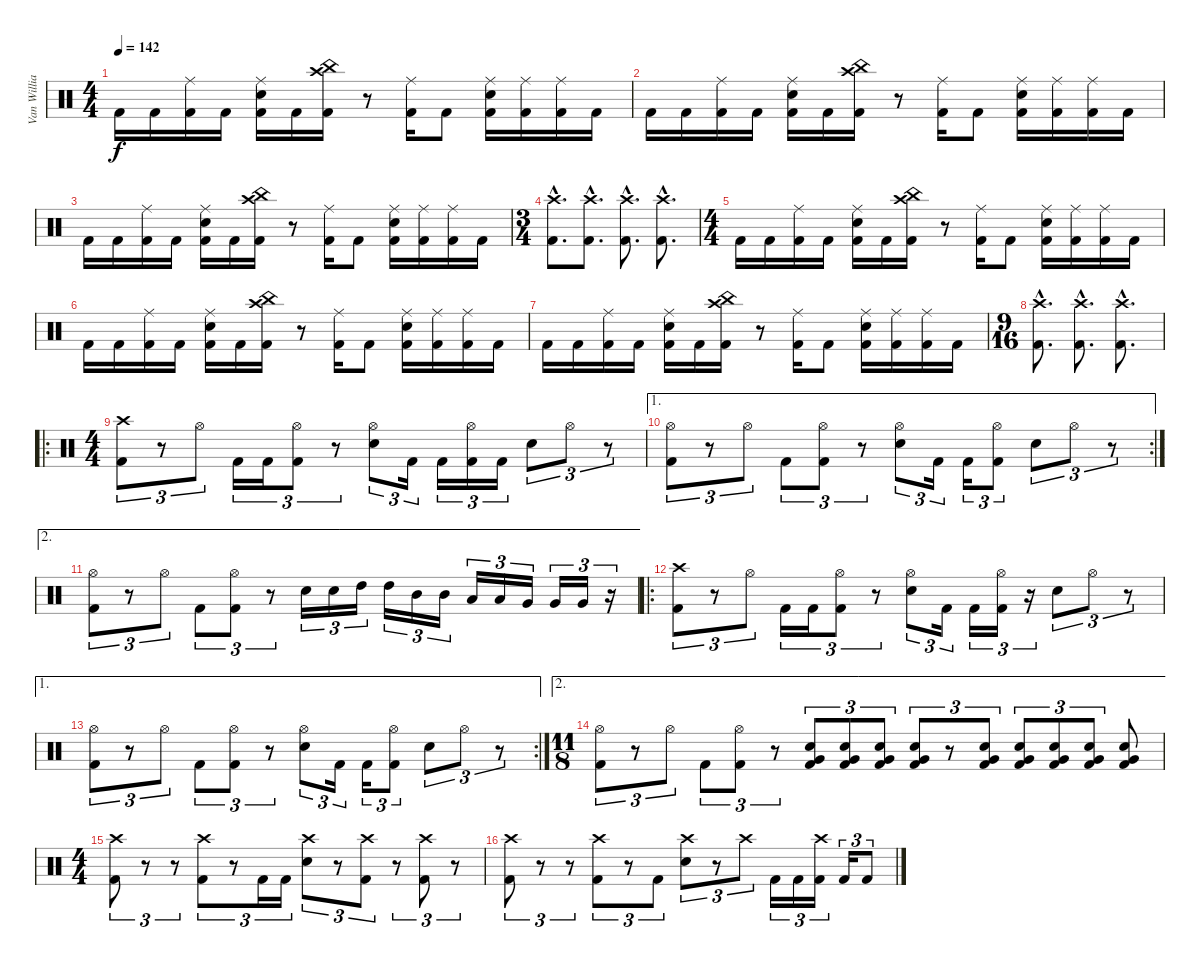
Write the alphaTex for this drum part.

\track ("Van Williams" "Van Willia") {instrument percussion}
\staff {score}
\articulation defaults
\ts (4 4)
\tempo 142
\clef neutral
\ks c "Kick (hit) 2".16{dy f} "Kick (hit) 2".16
("Ride (middle)" "Kick (hit) 2").16 "Kick (hit) 2".16 ("Ride (middle)" "Kick (hit) 2" "Electric Snare (hit)").16 "Kick (hit) 2".16 ("Crash high (hit)" "China (hit)" "Kick (hit) 2").16 r.8 ("Ride (middle)" "Kick (hit) 2").16 "Kick (hit) 2".8 ("Ride (middle)" "Kick (hit) 2" "Electric Snare (hit)").16 ("Ride (middle)" "Kick (hit) 2").16 ("Ride (middle)" "Kick (hit) 2").16 "Kick (hit) 2".16 |
"Kick (hit) 2".16 "Kick (hit) 2".16 ("Ride (middle)" "Kick (hit) 2").16 "Kick (hit) 2".16 ("Ride (middle)" "Kick (hit) 2" "Electric Snare (hit)").16 "Kick (hit) 2".16 ("Crash high (hit)" "China (hit)" "Kick (hit) 2").16 r.8 ("Ride (middle)" "Kick (hit) 2").16 "Kick (hit) 2".8 ("Ride (middle)" "Kick (hit) 2" "Electric Snare (hit)").16 ("Ride (middle)" "Kick (hit) 2").16 ("Ride (middle)" "Kick (hit) 2").16 "Kick (hit) 2".16 |
"Kick (hit) 2".16 "Kick (hit) 2".16 ("Ride (middle)" "Kick (hit) 2").16 "Kick (hit) 2".16 ("Ride (middle)" "Kick (hit) 2" "Electric Snare (hit)").16 "Kick (hit) 2".16 ("Crash high (hit)" "China (hit)" "Kick (hit) 2").16 r.8 ("Ride (middle)" "Kick (hit) 2").16 "Kick (hit) 2".8 ("Ride (middle)" "Kick (hit) 2" "Electric Snare (hit)").16 ("Ride (middle)" "Kick (hit) 2").16 ("Ride (middle)" "Kick (hit) 2").16 "Kick (hit) 2".16 |
\ts (3 4)
("Crash high (hit)"{hac} "Kick (hit) 2"{hac}).8{d} ("Crash high (hit)"{hac} "Kick (hit) 2"{hac}).8{d} ("Crash high (hit)"{hac} "Kick (hit) 2"{hac}).8{d} ("Crash high (hit)"{hac} "Kick (hit) 2"{hac}).8{d} |
\ts (4 4)
"Kick (hit) 2".16 "Kick (hit) 2".16 ("Ride (middle)" "Kick (hit) 2").16 "Kick (hit) 2".16 ("Ride (middle)" "Kick (hit) 2" "Electric Snare (hit)").16 "Kick (hit) 2".16 ("Crash high (hit)" "China (hit)" "Kick (hit) 2").16 r.8 ("Ride (middle)" "Kick (hit) 2").16 "Kick (hit) 2".8 ("Ride (middle)" "Kick (hit) 2" "Electric Snare (hit)").16 ("Ride (middle)" "Kick (hit) 2").16 ("Ride (middle)" "Kick (hit) 2").16 "Kick (hit) 2".16 |
"Kick (hit) 2".16 "Kick (hit) 2".16 ("Ride (middle)" "Kick (hit) 2").16 "Kick (hit) 2".16 ("Ride (middle)" "Kick (hit) 2" "Electric Snare (hit)").16 "Kick (hit) 2".16 ("Crash high (hit)" "China (hit)" "Kick (hit) 2").16 r.8 ("Ride (middle)" "Kick (hit) 2").16 "Kick (hit) 2".8 ("Ride (middle)" "Kick (hit) 2" "Electric Snare (hit)").16 ("Ride (middle)" "Kick (hit) 2").16 ("Ride (middle)" "Kick (hit) 2").16 "Kick (hit) 2".16 |
"Kick (hit) 2".16 "Kick (hit) 2".16 ("Ride (middle)" "Kick (hit) 2").16 "Kick (hit) 2".16 ("Ride (middle)" "Kick (hit) 2" "Electric Snare (hit)").16 "Kick (hit) 2".16 ("Crash high (hit)" "China (hit)" "Kick (hit) 2").16 r.8 ("Ride (middle)" "Kick (hit) 2").16 "Kick (hit) 2".8 ("Ride (middle)" "Kick (hit) 2" "Electric Snare (hit)").16 ("Ride (middle)" "Kick (hit) 2").16 ("Ride (middle)" "Kick (hit) 2").16 "Kick (hit) 2".16 |
\ts (9 16)
("Crash high (hit)"{hac} "Kick (hit) 2"{hac}).8{d} ("Crash high (hit)"{hac} "Kick (hit) 2"{hac}).8{d} ("Crash high (hit)"{hac} "Kick (hit) 2"{hac}).8{d} |
\ro
\ts (4 4)
("Crash high (hit)" "Kick (hit) 2").8{tu (3 2)} r.8{tu (3 2)} "Hi-Hat (open)".8{tu (3 2)} "Kick (hit) 2".16{tu (3 2)} "Kick (hit) 2".16{tu (3 2)} ("Hi-Hat (open)" "Kick (hit) 2").8{tu (3 2)} r.8{tu (3 2)} ("Hi-Hat (open)" "Electric Snare (hit)").8{tu (3 2)} "Kick (hit) 2".16{tu (3 2)} "Kick (hit) 2".16{tu (3 2)} ("Hi-Hat (open)" "Kick (hit) 2").16{tu (3 2)} "Kick (hit) 2".16{tu (3 2)} "Electric Snare (hit)".8{tu (3 2)} "Hi-Hat (open)".8{tu (3 2)} r.8{tu (3 2)} |
\ae 1
\rc 2
("Hi-Hat (open)" "Kick (hit) 2").8{tu (3 2)} r.8{tu (3 2)} "Hi-Hat (open)".8{tu (3 2)} "Kick (hit) 2".8{tu (3 2)} ("Hi-Hat (open)" "Kick (hit) 2").8{tu (3 2)} r.8{tu (3 2)} ("Hi-Hat (open)" "Electric Snare (hit)").8{tu (3 2)} "Kick (hit) 2".16{tu (3 2)} "Kick (hit) 2".16{tu (3 2)} ("Hi-Hat (open)" "Kick (hit) 2").8{tu (3 2)} "Electric Snare (hit)".8{tu (3 2)} "Hi-Hat (open)".8{tu (3 2)} r.8{tu (3 2)} |
\ae 2
("Hi-Hat (open)" "Kick (hit) 2").8{tu (3 2)} r.8{tu (3 2)} "Hi-Hat (open)".8{tu (3 2)} "Kick (hit) 2".8{tu (3 2)} ("Hi-Hat (open)" "Kick (hit) 2").8{tu (3 2)} r.8{tu (3 2)} "Electric Snare (hit)".16{tu (3 2)} "Electric Snare (hit)".16{tu (3 2)} "High Tom (hit)".16{tu (3 2)} "High Tom (hit)".16{tu (3 2)} "Mid Tom (hit)".16{tu (3 2)} "Mid Tom (hit)".16{tu (3 2)} "Low Tom (hit)".16{tu (3 2)} "Low Tom (hit)".16{tu (3 2)} "Very Low Tom (hit)".16{tu (3 2)} "Very Low Tom (hit)".16{tu (3 2)} "Very Low Tom (hit)".16{tu (3 2)} r.16{tu (3 2)} |
\ro
("Crash high (hit)" "Kick (hit) 2").8{tu (3 2)} r.8{tu (3 2)} "Hi-Hat (open)".8{tu (3 2)} "Kick (hit) 2".16{tu (3 2)} "Kick (hit) 2".16{tu (3 2)} ("Hi-Hat (open)" "Kick (hit) 2").8{tu (3 2)} r.8{tu (3 2)} ("Hi-Hat (open)" "Electric Snare (hit)").8{tu (3 2)} "Kick (hit) 2".16{tu (3 2)} "Kick (hit) 2".16{tu (3 2)} ("Hi-Hat (open)" "Kick (hit) 2").16{tu (3 2)} r.16{tu (3 2)} "Electric Snare (hit)".8{tu (3 2)} "Hi-Hat (open)".8{tu (3 2)} r.8{tu (3 2)} |
\ae 1
\rc 2
("Hi-Hat (open)" "Kick (hit) 2").8{tu (3 2)} r.8{tu (3 2)} "Hi-Hat (open)".8{tu (3 2)} "Kick (hit) 2".8{tu (3 2)} ("Hi-Hat (open)" "Kick (hit) 2").8{tu (3 2)} r.8{tu (3 2)} ("Hi-Hat (open)" "Electric Snare (hit)").8{tu (3 2)} "Kick (hit) 2".16{tu (3 2)} "Kick (hit) 2".16{tu (3 2)} ("Hi-Hat (open)" "Kick (hit) 2").8{tu (3 2)} "Electric Snare (hit)".8{tu (3 2)} "Hi-Hat (open)".8{tu (3 2)} r.8{tu (3 2)} |
\ae 2
\ts (11 8)
("Hi-Hat (open)" "Kick (hit) 2").8{tu (3 2)} r.8{tu (3 2)} "Hi-Hat (open)".8{tu (3 2)} "Kick (hit) 2".8{tu (3 2)} ("Hi-Hat (open)" "Kick (hit) 2").8{tu (3 2)} r.8{tu (3 2)} ("Kick (hit) 2" "Electric Snare (hit)" "Very Low Tom (hit)").8{tu (3 2)} ("Kick (hit) 2" "Electric Snare (hit)" "Very Low Tom (hit)").8{tu (3 2)} ("Kick (hit) 2" "Electric Snare (hit)" "Very Low Tom (hit)").8{tu (3 2)} ("Kick (hit) 2" "Electric Snare (hit)" "Very Low Tom (hit)").8{tu (3 2)} r.8{tu (3 2)} ("Kick (hit) 2" "Electric Snare (hit)" "Very Low Tom (hit)").8{tu (3 2)} ("Kick (hit) 2" "Electric Snare (hit)" "Very Low Tom (hit)").8{tu (3 2)} ("Kick (hit) 2" "Electric Snare (hit)" "Very Low Tom (hit)").8{tu (3 2)} ("Kick (hit) 2" "Electric Snare (hit)" "Very Low Tom (hit)").8{tu (3 2)} ("Kick (hit) 2" "Electric Snare (hit)" "Very Low Tom (hit)").8 |
\ts (4 4)
("Crash high (hit)" "Kick (hit) 2").8{tu (3 2)} r.8{tu (3 2)} r.8{tu (3 2)} ("Crash high (hit)" "Kick (hit) 2").8{tu (3 2)} r.8{tu (3 2)} "Kick (hit) 2".16{tu (3 2)} "Kick (hit) 2".16{tu (3 2)} ("Crash high (hit)" "Electric Snare (hit)").8{tu (3 2)} r.8{tu (3 2)} ("Crash high (hit)" "Kick (hit) 2").8{tu (3 2)} r.8{tu (3 2)} ("Crash high (hit)" "Kick (hit) 2").8{tu (3 2)} r.8{tu (3 2)} |
("Crash high (hit)" "Kick (hit) 2").8{tu (3 2)} r.8{tu (3 2)} r.8{tu (3 2)} ("Crash high (hit)" "Kick (hit) 2").8{tu (3 2)} r.8{tu (3 2)} "Kick (hit) 2".8{tu (3 2)} ("Crash high (hit)" "Electric Snare (hit)").8{tu (3 2)} r.8{tu (3 2)} "Crash high (hit)".8{tu (3 2)} "Kick (hit) 2".16{tu (3 2)} "Kick (hit) 2".16{tu (3 2)} ("Crash high (hit)" "Kick (hit) 2").16{tu (3 2)} "Kick (hit) 2".16{tu (3 2)} "Kick (hit) 2".8{tu (3 2)}
